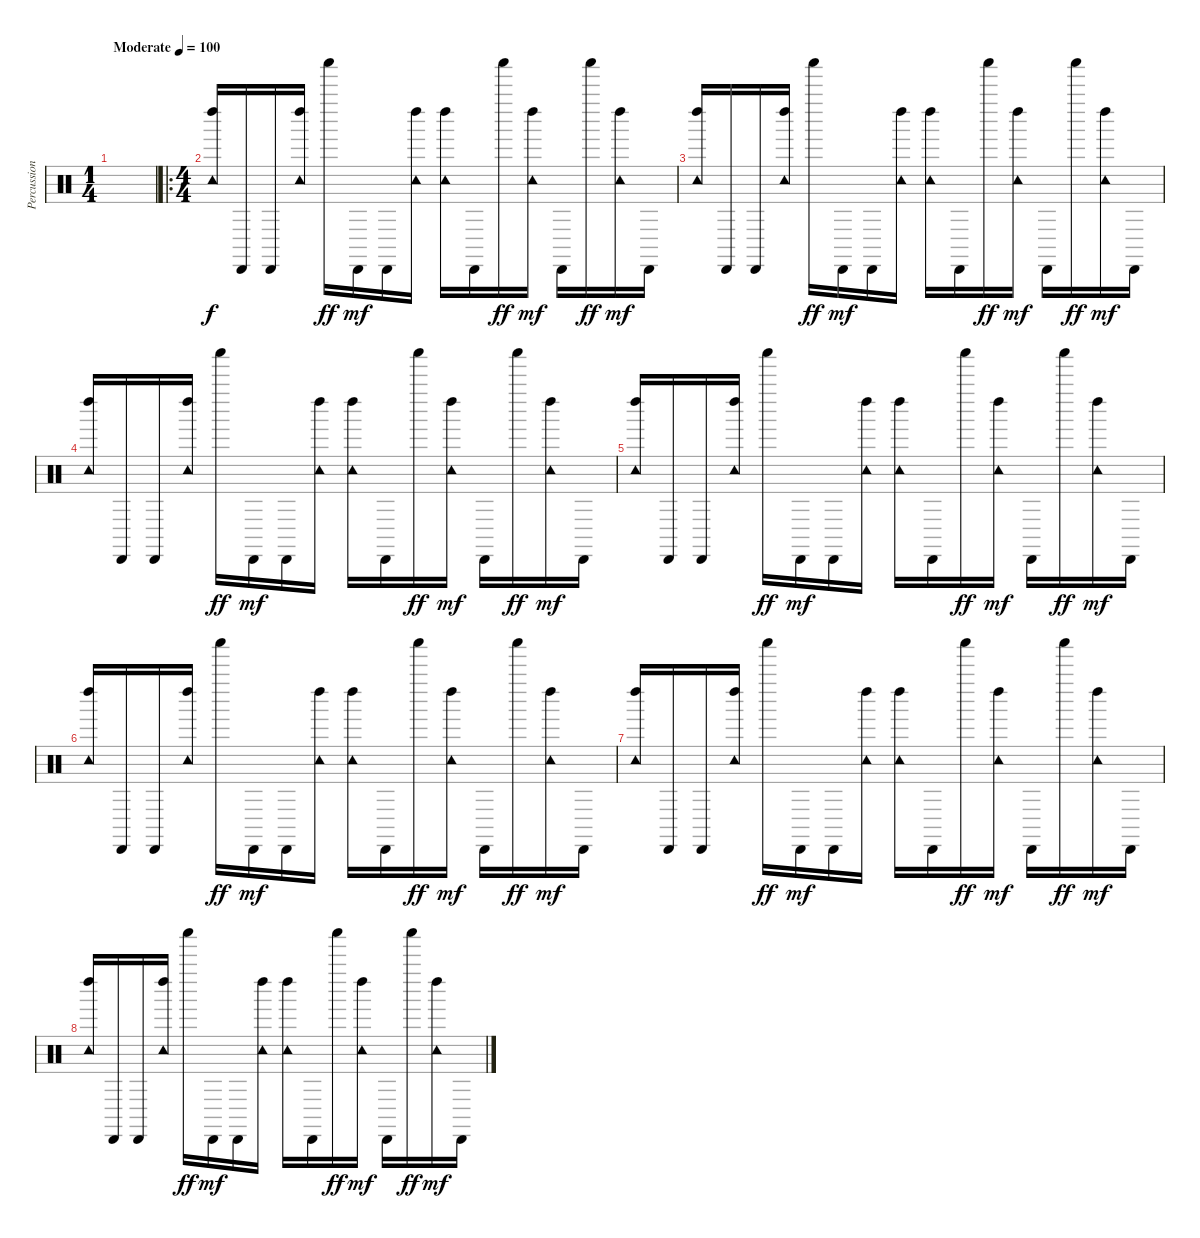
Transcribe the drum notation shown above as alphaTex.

\track ("Percussion" "Percussion") {instrument percussion}
\staff {score}
\articulation defaults
\ts (1 4)
\tempo (100 "Moderate")
\clef neutral
\ks c
|
\ro
\ts (4 4)
("Left Maraca (hit)" "Tambourine (hit)").16 "Cabasa (hit)".16 "Cabasa (hit)".16 ("Left Maraca (hit)" "Tambourine (hit)").16 "Shaker (hit)".16{dy ff} "Cabasa (hit)".16{dy mf} "Cabasa (hit)".16 ("Left Maraca (hit)" "Tambourine (hit)").16 ("Left Maraca (hit)" "Tambourine (hit)").16 "Cabasa (hit)".16 "Shaker (hit)".16{dy ff} ("Left Maraca (hit)" "Tambourine (hit)").16{dy mf} "Cabasa (hit)".16 "Shaker (hit)".16{dy ff} ("Left Maraca (hit)" "Tambourine (hit)").16{dy mf} "Cabasa (hit)".16 |
("Left Maraca (hit)" "Tambourine (hit)").16 "Cabasa (hit)".16 "Cabasa (hit)".16 ("Left Maraca (hit)" "Tambourine (hit)").16 "Shaker (hit)".16{dy ff} "Cabasa (hit)".16{dy mf} "Cabasa (hit)".16 ("Left Maraca (hit)" "Tambourine (hit)").16 ("Left Maraca (hit)" "Tambourine (hit)").16 "Cabasa (hit)".16 "Shaker (hit)".16{dy ff} ("Left Maraca (hit)" "Tambourine (hit)").16{dy mf} "Cabasa (hit)".16 "Shaker (hit)".16{dy ff} ("Left Maraca (hit)" "Tambourine (hit)").16{dy mf} "Cabasa (hit)".16 |
("Left Maraca (hit)" "Tambourine (hit)").16 "Cabasa (hit)".16 "Cabasa (hit)".16 ("Left Maraca (hit)" "Tambourine (hit)").16 "Shaker (hit)".16{dy ff} "Cabasa (hit)".16{dy mf} "Cabasa (hit)".16 ("Left Maraca (hit)" "Tambourine (hit)").16 ("Left Maraca (hit)" "Tambourine (hit)").16 "Cabasa (hit)".16 "Shaker (hit)".16{dy ff} ("Left Maraca (hit)" "Tambourine (hit)").16{dy mf} "Cabasa (hit)".16 "Shaker (hit)".16{dy ff} ("Left Maraca (hit)" "Tambourine (hit)").16{dy mf} "Cabasa (hit)".16 |
("Left Maraca (hit)" "Tambourine (hit)").16 "Cabasa (hit)".16 "Cabasa (hit)".16 ("Left Maraca (hit)" "Tambourine (hit)").16 "Shaker (hit)".16{dy ff} "Cabasa (hit)".16{dy mf} "Cabasa (hit)".16 ("Left Maraca (hit)" "Tambourine (hit)").16 ("Left Maraca (hit)" "Tambourine (hit)").16 "Cabasa (hit)".16 "Shaker (hit)".16{dy ff} ("Left Maraca (hit)" "Tambourine (hit)").16{dy mf} "Cabasa (hit)".16 "Shaker (hit)".16{dy ff} ("Left Maraca (hit)" "Tambourine (hit)").16{dy mf} "Cabasa (hit)".16 |
("Left Maraca (hit)" "Tambourine (hit)").16 "Cabasa (hit)".16 "Cabasa (hit)".16 ("Left Maraca (hit)" "Tambourine (hit)").16 "Shaker (hit)".16{dy ff} "Cabasa (hit)".16{dy mf} "Cabasa (hit)".16 ("Left Maraca (hit)" "Tambourine (hit)").16 ("Left Maraca (hit)" "Tambourine (hit)").16 "Cabasa (hit)".16 "Shaker (hit)".16{dy ff} ("Left Maraca (hit)" "Tambourine (hit)").16{dy mf} "Cabasa (hit)".16 "Shaker (hit)".16{dy ff} ("Left Maraca (hit)" "Tambourine (hit)").16{dy mf} "Cabasa (hit)".16 |
("Left Maraca (hit)" "Tambourine (hit)").16 "Cabasa (hit)".16 "Cabasa (hit)".16 ("Left Maraca (hit)" "Tambourine (hit)").16 "Shaker (hit)".16{dy ff} "Cabasa (hit)".16{dy mf} "Cabasa (hit)".16 ("Left Maraca (hit)" "Tambourine (hit)").16 ("Left Maraca (hit)" "Tambourine (hit)").16 "Cabasa (hit)".16 "Shaker (hit)".16{dy ff} ("Left Maraca (hit)" "Tambourine (hit)").16{dy mf} "Cabasa (hit)".16 "Shaker (hit)".16{dy ff} ("Left Maraca (hit)" "Tambourine (hit)").16{dy mf} "Cabasa (hit)".16 |
("Left Maraca (hit)" "Tambourine (hit)").16 "Cabasa (hit)".16 "Cabasa (hit)".16 ("Left Maraca (hit)" "Tambourine (hit)").16 "Shaker (hit)".16{dy ff} "Cabasa (hit)".16{dy mf} "Cabasa (hit)".16 ("Left Maraca (hit)" "Tambourine (hit)").16 ("Left Maraca (hit)" "Tambourine (hit)").16 "Cabasa (hit)".16 "Shaker (hit)".16{dy ff} ("Left Maraca (hit)" "Tambourine (hit)").16{dy mf} "Cabasa (hit)".16 "Shaker (hit)".16{dy ff} ("Left Maraca (hit)" "Tambourine (hit)").16{dy mf} "Cabasa (hit)".16
